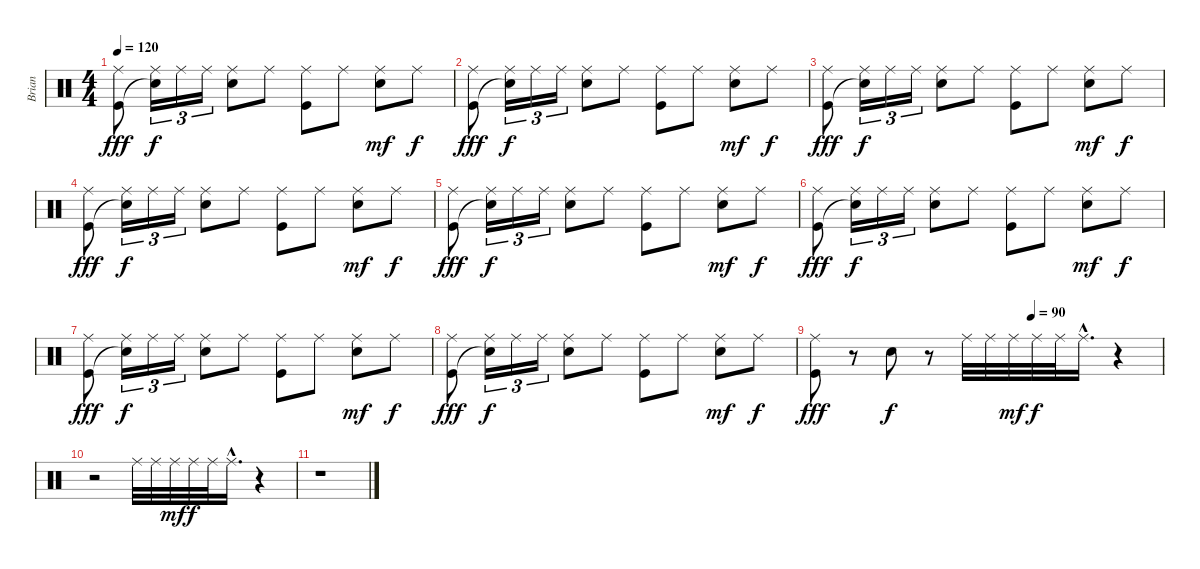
\track ("Brian" "Brian") {instrument percussion}
\staff {score}
\articulation defaults
\ts (4 4)
\tempo 120
\clef neutral
\ks c
("Ride (middle)" "Kick (hit)").8{dy fff} ("Ride (middle)" "Snare (hit)"{t}).16{tu (3 2) dy f} "Ride (middle)".16{tu (3 2)} "Ride (middle)".16{tu (3 2)} ("Ride (middle)" "Snare (hit) 2").8 "Ride (middle)".8 ("Ride (middle)" "Kick (hit)").8 "Ride (middle)".8 ("Ride (middle)" "Snare (hit) 2").8{dy mf} "Ride (middle)".8{dy f} |
("Ride (middle)" "Kick (hit)").8{dy fff} ("Ride (middle)" "Snare (hit)"{t}).16{tu (3 2) dy f} "Ride (middle)".16{tu (3 2)} "Ride (middle)".16{tu (3 2)} ("Ride (middle)" "Snare (hit) 2").8 "Ride (middle)".8 ("Ride (middle)" "Kick (hit)").8 "Ride (middle)".8 ("Ride (middle)" "Snare (hit) 2").8{dy mf} "Ride (middle)".8{dy f} |
("Ride (middle)" "Kick (hit)").8{dy fff} ("Ride (middle)" "Snare (hit)"{t}).16{tu (3 2) dy f} "Ride (middle)".16{tu (3 2)} "Ride (middle)".16{tu (3 2)} ("Ride (middle)" "Snare (hit) 2").8 "Ride (middle)".8 ("Ride (middle)" "Kick (hit)").8 "Ride (middle)".8 ("Ride (middle)" "Snare (hit) 2").8{dy mf} "Ride (middle)".8{dy f} |
("Ride (middle)" "Kick (hit)").8{dy fff} ("Ride (middle)" "Snare (hit)"{t}).16{tu (3 2) dy f} "Ride (middle)".16{tu (3 2)} "Ride (middle)".16{tu (3 2)} ("Ride (middle)" "Snare (hit) 2").8 "Ride (middle)".8 ("Ride (middle)" "Kick (hit)").8 "Ride (middle)".8 ("Ride (middle)" "Snare (hit) 2").8{dy mf} "Ride (middle)".8{dy f} |
("Ride (middle)" "Kick (hit)").8{dy fff} ("Ride (middle)" "Snare (hit)"{t}).16{tu (3 2) dy f} "Ride (middle)".16{tu (3 2)} "Ride (middle)".16{tu (3 2)} ("Ride (middle)" "Snare (hit) 2").8 "Ride (middle)".8 ("Ride (middle)" "Kick (hit)").8 "Ride (middle)".8 ("Ride (middle)" "Snare (hit) 2").8{dy mf} "Ride (middle)".8{dy f} |
("Ride (middle)" "Kick (hit)").8{dy fff} ("Ride (middle)" "Snare (hit)"{t}).16{tu (3 2) dy f} "Ride (middle)".16{tu (3 2)} "Ride (middle)".16{tu (3 2)} ("Ride (middle)" "Snare (hit) 2").8 "Ride (middle)".8 ("Ride (middle)" "Kick (hit)").8 "Ride (middle)".8 ("Ride (middle)" "Snare (hit) 2").8{dy mf} "Ride (middle)".8{dy f} |
("Ride (middle)" "Kick (hit)").8{dy fff} ("Ride (middle)" "Snare (hit)"{t}).16{tu (3 2) dy f} "Ride (middle)".16{tu (3 2)} "Ride (middle)".16{tu (3 2)} ("Ride (middle)" "Snare (hit) 2").8 "Ride (middle)".8 ("Ride (middle)" "Kick (hit)").8 "Ride (middle)".8 ("Ride (middle)" "Snare (hit) 2").8{dy mf} "Ride (middle)".8{dy f} |
("Ride (middle)" "Kick (hit)").8{dy fff} ("Ride (middle)" "Snare (hit)"{t}).16{tu (3 2) dy f} "Ride (middle)".16{tu (3 2)} "Ride (middle)".16{tu (3 2)} ("Ride (middle)" "Snare (hit) 2").8 "Ride (middle)".8 ("Ride (middle)" "Kick (hit)").8 "Ride (middle)".8 ("Ride (middle)" "Snare (hit) 2").8{dy mf} "Ride (middle)".8{dy f} |
\tempo (90 0.625)
("Ride (middle)" "Kick (hit)").8{dy fff} r.8 "Snare (hit) 2".8{dy f} r.8 "Ride (middle)".32 "Ride (middle)".32 "Ride (middle)".32{dy mf} "Ride (middle)".32{dy f} "Ride (middle)".32 "Ride (middle)"{hac}.16{d} r.4 |
r.2 "Ride (middle)".32 "Ride (middle)".32 "Ride (middle)".32{dy mf} "Ride (middle)".32{dy f} "Ride (middle)".32 "Ride (middle)"{hac}.16{d} r.4 |
r.1
